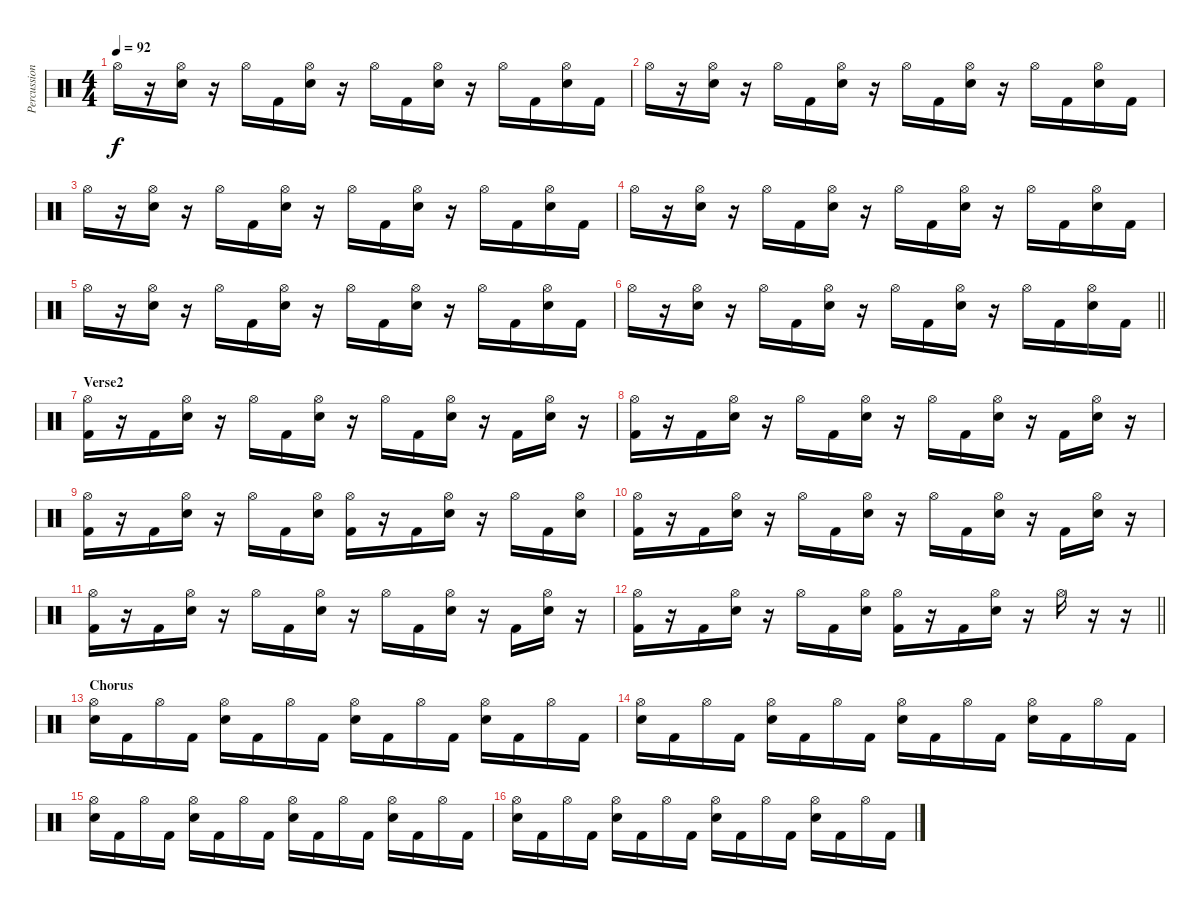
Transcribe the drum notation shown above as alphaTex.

\track ("Percussion" "Percussion") {instrument percussion}
\staff {score}
\articulation defaults
\ts (4 4)
\tempo 92
\clef neutral
\ks c "Hi-Hat (open)".16{dy f}
r.16 ("Hi-Hat (open)" "Electric Snare (hit)").16 r.16 "Hi-Hat (open)".16 "Kick (hit) 2".16 ("Hi-Hat (open)" "Electric Snare (hit)").16 r.16 "Hi-Hat (open)".16 "Kick (hit) 2".16 ("Hi-Hat (open)" "Electric Snare (hit)").16 r.16 "Hi-Hat (open)".16 "Kick (hit) 2".16 ("Hi-Hat (open)" "Electric Snare (hit)").16 "Kick (hit) 2".16 |
"Hi-Hat (open)".16 r.16 ("Hi-Hat (open)" "Electric Snare (hit)").16 r.16 "Hi-Hat (open)".16 "Kick (hit) 2".16 ("Hi-Hat (open)" "Electric Snare (hit)").16 r.16 "Hi-Hat (open)".16 "Kick (hit) 2".16 ("Hi-Hat (open)" "Electric Snare (hit)").16 r.16 "Hi-Hat (open)".16 "Kick (hit) 2".16 ("Hi-Hat (open)" "Electric Snare (hit)").16 "Kick (hit) 2".16 |
"Hi-Hat (open)".16 r.16 ("Hi-Hat (open)" "Electric Snare (hit)").16 r.16 "Hi-Hat (open)".16 "Kick (hit) 2".16 ("Hi-Hat (open)" "Electric Snare (hit)").16 r.16 "Hi-Hat (open)".16 "Kick (hit) 2".16 ("Hi-Hat (open)" "Electric Snare (hit)").16 r.16 "Hi-Hat (open)".16 "Kick (hit) 2".16 ("Hi-Hat (open)" "Electric Snare (hit)").16 "Kick (hit) 2".16 |
"Hi-Hat (open)".16 r.16 ("Hi-Hat (open)" "Electric Snare (hit)").16 r.16 "Hi-Hat (open)".16 "Kick (hit) 2".16 ("Hi-Hat (open)" "Electric Snare (hit)").16 r.16 "Hi-Hat (open)".16 "Kick (hit) 2".16 ("Hi-Hat (open)" "Electric Snare (hit)").16 r.16 "Hi-Hat (open)".16 "Kick (hit) 2".16 ("Hi-Hat (open)" "Electric Snare (hit)").16 "Kick (hit) 2".16 |
"Hi-Hat (open)".16 r.16 ("Hi-Hat (open)" "Electric Snare (hit)").16 r.16 "Hi-Hat (open)".16 "Kick (hit) 2".16 ("Hi-Hat (open)" "Electric Snare (hit)").16 r.16 "Hi-Hat (open)".16 "Kick (hit) 2".16 ("Hi-Hat (open)" "Electric Snare (hit)").16 r.16 "Hi-Hat (open)".16 "Kick (hit) 2".16 ("Hi-Hat (open)" "Electric Snare (hit)").16 "Kick (hit) 2".16 |
\barLineRight lightlight "Hi-Hat (open)".16
r.16 ("Hi-Hat (open)" "Electric Snare (hit)").16 r.16 "Hi-Hat (open)".16 "Kick (hit) 2".16 ("Hi-Hat (open)" "Electric Snare (hit)").16 r.16 "Hi-Hat (open)".16 "Kick (hit) 2".16 ("Hi-Hat (open)" "Electric Snare (hit)").16 r.16 "Hi-Hat (open)".16 "Kick (hit) 2".16 ("Hi-Hat (open)" "Electric Snare (hit)").16 "Kick (hit) 2".16 |
\section ("" "Verse2")
("Hi-Hat (open)" "Kick (hit) 2").16 r.16 "Kick (hit) 2".16 ("Hi-Hat (open)" "Electric Snare (hit)").16 r.16 "Hi-Hat (open)".16 "Kick (hit) 2".16 ("Hi-Hat (open)" "Electric Snare (hit)").16 r.16 "Hi-Hat (open)".16 "Kick (hit) 2".16 ("Hi-Hat (open)" "Electric Snare (hit)").16 r.16 "Kick (hit) 2".16 ("Hi-Hat (open)" "Electric Snare (hit)").16 r.16 |
("Hi-Hat (open)" "Kick (hit) 2").16 r.16 "Kick (hit) 2".16 ("Hi-Hat (open)" "Electric Snare (hit)").16 r.16 "Hi-Hat (open)".16 "Kick (hit) 2".16 ("Hi-Hat (open)" "Electric Snare (hit)").16 r.16 "Hi-Hat (open)".16 "Kick (hit) 2".16 ("Hi-Hat (open)" "Electric Snare (hit)").16 r.16 "Kick (hit) 2".16 ("Hi-Hat (open)" "Electric Snare (hit)").16 r.16 |
("Hi-Hat (open)" "Kick (hit) 2").16 r.16 "Kick (hit) 2".16 ("Hi-Hat (open)" "Electric Snare (hit)").16 r.16 "Hi-Hat (open)".16 "Kick (hit) 2".16 ("Hi-Hat (open)" "Electric Snare (hit)").16 ("Hi-Hat (open)" "Kick (hit) 2").16 r.16 "Kick (hit) 2".16 ("Hi-Hat (open)" "Electric Snare (hit)").16 r.16 "Hi-Hat (open)".16 "Kick (hit) 2".16 ("Hi-Hat (open)" "Electric Snare (hit)").16 |
("Hi-Hat (open)" "Kick (hit) 2").16 r.16 "Kick (hit) 2".16 ("Hi-Hat (open)" "Electric Snare (hit)").16 r.16 "Hi-Hat (open)".16 "Kick (hit) 2".16 ("Hi-Hat (open)" "Electric Snare (hit)").16 r.16 "Hi-Hat (open)".16 "Kick (hit) 2".16 ("Hi-Hat (open)" "Electric Snare (hit)").16 r.16 "Kick (hit) 2".16 ("Hi-Hat (open)" "Electric Snare (hit)").16 r.16 |
("Hi-Hat (open)" "Kick (hit) 2").16 r.16 "Kick (hit) 2".16 ("Hi-Hat (open)" "Electric Snare (hit)").16 r.16 "Hi-Hat (open)".16 "Kick (hit) 2".16 ("Hi-Hat (open)" "Electric Snare (hit)").16 r.16 "Hi-Hat (open)".16 "Kick (hit) 2".16 ("Hi-Hat (open)" "Electric Snare (hit)").16 r.16 "Kick (hit) 2".16 ("Hi-Hat (open)" "Electric Snare (hit)").16 r.16 |
\barLineRight lightlight
("Hi-Hat (open)" "Kick (hit) 2").16 r.16 "Kick (hit) 2".16 ("Hi-Hat (open)" "Electric Snare (hit)").16 r.16 "Hi-Hat (open)".16 "Kick (hit) 2".16 ("Hi-Hat (open)" "Electric Snare (hit)").16 ("Hi-Hat (open)" "Kick (hit) 2").16 r.16 "Kick (hit) 2".16 ("Hi-Hat (open)" "Electric Snare (hit)").16 r.16 "Hi-Hat (open)".16 r.16 r.16 |
\section ("" "Chorus")
("Hi-Hat (open)" "Electric Snare (hit)").16 "Kick (hit) 2".16 "Hi-Hat (open)".16 "Kick (hit) 2".16 ("Hi-Hat (open)" "Electric Snare (hit)").16 "Kick (hit) 2".16 "Hi-Hat (open)".16 "Kick (hit) 2".16 ("Hi-Hat (open)" "Electric Snare (hit)").16 "Kick (hit) 2".16 "Hi-Hat (open)".16 "Kick (hit) 2".16 ("Hi-Hat (open)" "Electric Snare (hit)").16 "Kick (hit) 2".16 "Hi-Hat (open)".16 "Kick (hit) 2".16 |
("Hi-Hat (open)" "Electric Snare (hit)").16 "Kick (hit) 2".16 "Hi-Hat (open)".16 "Kick (hit) 2".16 ("Hi-Hat (open)" "Electric Snare (hit)").16 "Kick (hit) 2".16 "Hi-Hat (open)".16 "Kick (hit) 2".16 ("Hi-Hat (open)" "Electric Snare (hit)").16 "Kick (hit) 2".16 "Hi-Hat (open)".16 "Kick (hit) 2".16 ("Hi-Hat (open)" "Electric Snare (hit)").16 "Kick (hit) 2".16 "Hi-Hat (open)".16 "Kick (hit) 2".16 |
("Hi-Hat (open)" "Electric Snare (hit)").16 "Kick (hit) 2".16 "Hi-Hat (open)".16 "Kick (hit) 2".16 ("Hi-Hat (open)" "Electric Snare (hit)").16 "Kick (hit) 2".16 "Hi-Hat (open)".16 "Kick (hit) 2".16 ("Hi-Hat (open)" "Electric Snare (hit)").16 "Kick (hit) 2".16 "Hi-Hat (open)".16 "Kick (hit) 2".16 ("Hi-Hat (open)" "Electric Snare (hit)").16 "Kick (hit) 2".16 "Hi-Hat (open)".16 "Kick (hit) 2".16 |
("Hi-Hat (open)" "Electric Snare (hit)").16 "Kick (hit) 2".16 "Hi-Hat (open)".16 "Kick (hit) 2".16 ("Hi-Hat (open)" "Electric Snare (hit)").16 "Kick (hit) 2".16 "Hi-Hat (open)".16 "Kick (hit) 2".16 ("Hi-Hat (open)" "Electric Snare (hit)").16 "Kick (hit) 2".16 "Hi-Hat (open)".16 "Kick (hit) 2".16 ("Hi-Hat (open)" "Electric Snare (hit)").16 "Kick (hit) 2".16 "Hi-Hat (open)".16 "Kick (hit) 2".16
